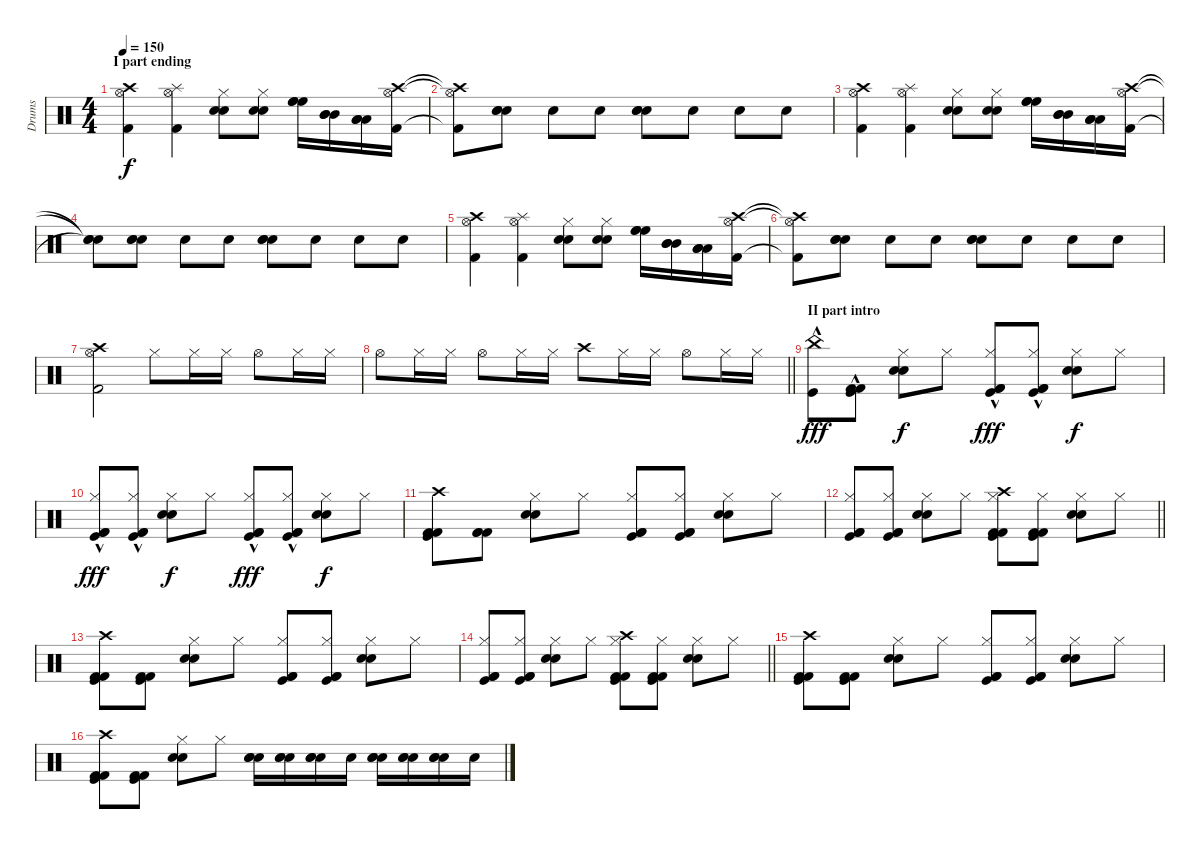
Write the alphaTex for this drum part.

\track ("Drums" "Drums") {instrument percussion}
\staff {score}
\articulation defaults
\ts (4 4)
\section ("" "I part ending")
\tempo 150
\clef neutral
\ks c
("Crash high (hit)" "Hi-Hat (open)" "Kick (hit) 2").4{dy f} ("Splash (hit)" "Hi-Hat (open)" "Kick (hit) 2").4 ("Hi-Hat (closed)" "Electric Snare (hit)" "Snare (hit) 2").8 ("Hi-Hat (closed)" "Electric Snare (hit)" "Snare (hit) 2").8 ("High Floor Tom (hit)" "High Floor Tom (hit)" "High Floor Tom (hit)").16 ("Mid Tom (hit)" "Mid Tom (hit)" "Mid Tom (hit)").16 ("Low Tom (hit)" "Low Tom (hit)" "Low Tom (hit)").16 ("Crash high (hit)" "Hi-Hat (open)" "Kick (hit) 2").16 |
("Crash high (hit)"{t} "Hi-Hat (open)"{t} "Kick (hit) 2"{t}).8 ("Snare (hit) 2" "Snare (hit) 2" "Electric Snare (hit)").8 "Snare (hit) 2".8 "Snare (hit) 2".8 ("Snare (hit) 2" "Snare (hit) 2" "Electric Snare (hit)").8 "Snare (hit) 2".8 "Electric Snare (hit)".8 "Electric Snare (hit)".8 |
("Crash high (hit)" "Hi-Hat (open)" "Kick (hit) 2").4 ("Splash (hit)" "Hi-Hat (open)" "Kick (hit) 2").4 ("Hi-Hat (closed)" "Electric Snare (hit)" "Snare (hit) 2").8 ("Hi-Hat (closed)" "Electric Snare (hit)" "Snare (hit) 2").8 ("High Floor Tom (hit)" "High Floor Tom (hit)" "High Floor Tom (hit)").16 ("Mid Tom (hit)" "Mid Tom (hit)" "Mid Tom (hit)").16 ("Low Tom (hit)" "Low Tom (hit)" "Low Tom (hit)").16 ("Crash high (hit)" "Hi-Hat (open)" "Kick (hit) 2").16 |
("Snare (hit)"{t} "Snare (hit)"{t} "Snare (hit)"{t}).8 ("Snare (hit) 2" "Snare (hit) 2" "Electric Snare (hit)").8 "Snare (hit) 2".8 "Snare (hit) 2".8 ("Snare (hit) 2" "Snare (hit) 2" "Electric Snare (hit)").8 "Snare (hit) 2".8 "Electric Snare (hit)".8 "Electric Snare (hit)".8 |
("Crash high (hit)" "Hi-Hat (open)" "Kick (hit) 2").4 ("Splash (hit)" "Hi-Hat (open)" "Kick (hit) 2").4 ("Hi-Hat (closed)" "Electric Snare (hit)" "Snare (hit) 2").8 ("Hi-Hat (closed)" "Electric Snare (hit)" "Snare (hit) 2").8 ("High Floor Tom (hit)" "High Floor Tom (hit)" "High Floor Tom (hit)").16 ("Mid Tom (hit)" "Mid Tom (hit)" "Mid Tom (hit)").16 ("Low Tom (hit)" "Low Tom (hit)" "Low Tom (hit)").16 ("Crash high (hit)" "Hi-Hat (open)" "Kick (hit) 2").16 |
("Crash high (hit)"{t} "Hi-Hat (open)"{t} "Kick (hit) 2"{t}).8 ("Snare (hit) 2" "Snare (hit) 2" "Electric Snare (hit)").8 "Snare (hit) 2".8 "Snare (hit) 2".8 ("Snare (hit) 2" "Snare (hit) 2" "Electric Snare (hit)").8 "Snare (hit) 2".8 "Electric Snare (hit)".8 "Electric Snare (hit)".8 |
("Crash high (hit)" "Hi-Hat (open)" "Kick (hit) 2").2 "Hi-Hat (closed)".8 "Hi-Hat (closed)".16 "Hi-Hat (closed)".16 "Hi-Hat (open)".8 "Hi-Hat (closed)".16 "Hi-Hat (closed)".16 |
\barLineRight lightlight "Hi-Hat (open)".8 "Hi-Hat (closed)".16 "Hi-Hat (closed)".16 "Hi-Hat (open)".8 "Hi-Hat (closed)".16 "Hi-Hat (closed)".16 "Crash high (hit)".8 "Hi-Hat (closed)".16 "Hi-Hat (closed)".16 "Hi-Hat (open)".8 "Hi-Hat (closed)".16 "Hi-Hat (closed)".16
|
\section ("" "II part intro")
("China (hit)"{hac} "Kick (hit)"{hac}).8{dy fff} ("Kick (hit) 2" "Kick (hit) 2"{hac} "Kick (hit)"{hac}).8 ("Hi-Hat (closed)" "Electric Snare (hit)" "Snare (hit) 2").8{dy f} "Hi-Hat (closed)".8 ("Kick (hit) 2" "Hi-Hat (closed)" "Kick (hit)"{hac} "Kick (hit) 2"{hac}).8{dy fff} ("Kick (hit) 2" "Hi-Hat (closed)" "Kick (hit)"{hac} "Kick (hit) 2"{hac}).8 ("Hi-Hat (closed)" "Electric Snare (hit)" "Snare (hit) 2").8{dy f} "Hi-Hat (closed)".8 |
("Kick (hit) 2" "Hi-Hat (closed)" "Kick (hit)"{hac} "Kick (hit) 2"{hac}).8{dy fff} ("Kick (hit) 2" "Hi-Hat (closed)" "Kick (hit)"{hac} "Kick (hit) 2"{hac}).8 ("Hi-Hat (closed)" "Electric Snare (hit)" "Snare (hit) 2").8{dy f} "Hi-Hat (closed)".8 ("Kick (hit) 2" "Hi-Hat (closed)" "Kick (hit)"{hac} "Kick (hit) 2"{hac}).8{dy fff} ("Kick (hit) 2" "Hi-Hat (closed)" "Kick (hit)"{hac} "Kick (hit) 2"{hac}).8 ("Hi-Hat (closed)" "Electric Snare (hit)" "Snare (hit) 2").8{dy f} "Hi-Hat (closed)".8 |
("Kick (hit) 2" "Crash high (hit)" "Kick (hit) 2" "Kick (hit)").8 ("Kick (hit) 2" "Kick (hit) 2" "Kick (hit) 2").8 ("Hi-Hat (closed)" "Electric Snare (hit)" "Snare (hit) 2").8 "Hi-Hat (closed)".8 ("Kick (hit) 2" "Hi-Hat (closed)" "Kick (hit) 2" "Kick (hit)").8 ("Kick (hit) 2" "Hi-Hat (closed)" "Kick (hit) 2" "Kick (hit)").8 ("Hi-Hat (closed)" "Electric Snare (hit)" "Snare (hit) 2").8 "Hi-Hat (closed)".8 |
\barLineRight lightlight
("Kick (hit) 2" "Hi-Hat (closed)" "Kick (hit) 2" "Kick (hit)").8 ("Kick (hit) 2" "Hi-Hat (closed)" "Kick (hit) 2" "Kick (hit)").8 ("Hi-Hat (closed)" "Electric Snare (hit)" "Snare (hit) 2").8 "Hi-Hat (closed)".8 ("Crash high (hit)" "Kick (hit) 2" "Hi-Hat (closed)" "Kick (hit) 2" "Kick (hit)").8 ("Kick (hit) 2" "Hi-Hat (closed)" "Kick (hit) 2" "Kick (hit)").8 ("Hi-Hat (closed)" "Electric Snare (hit)" "Snare (hit) 2").8 "Hi-Hat (closed)".8 |
("Kick (hit) 2" "Crash high (hit)" "Kick (hit) 2" "Kick (hit)").8 ("Kick (hit) 2" "Kick (hit) 2" "Kick (hit)").8 ("Hi-Hat (closed)" "Electric Snare (hit)" "Snare (hit) 2").8 "Hi-Hat (closed)".8 ("Kick (hit) 2" "Hi-Hat (closed)" "Kick (hit) 2" "Kick (hit)").8 ("Kick (hit) 2" "Hi-Hat (closed)" "Kick (hit) 2" "Kick (hit)").8 ("Hi-Hat (closed)" "Electric Snare (hit)" "Snare (hit) 2").8 "Hi-Hat (closed)".8 |
\barLineRight lightlight
("Kick (hit) 2" "Hi-Hat (closed)" "Kick (hit) 2" "Kick (hit)").8 ("Kick (hit) 2" "Hi-Hat (closed)" "Kick (hit) 2" "Kick (hit)").8 ("Hi-Hat (closed)" "Electric Snare (hit)" "Snare (hit) 2").8 "Hi-Hat (closed)".8 ("Crash high (hit)" "Kick (hit) 2" "Hi-Hat (closed)" "Kick (hit) 2" "Kick (hit)").8 ("Kick (hit) 2" "Hi-Hat (closed)" "Kick (hit) 2" "Kick (hit)").8 ("Hi-Hat (closed)" "Electric Snare (hit)" "Snare (hit) 2").8 "Hi-Hat (closed)".8 |
("Kick (hit) 2" "Crash high (hit)" "Kick (hit) 2" "Kick (hit)").8 ("Kick (hit) 2" "Kick (hit) 2" "Kick (hit)").8 ("Hi-Hat (closed)" "Electric Snare (hit)" "Snare (hit) 2").8 "Hi-Hat (closed)".8 ("Kick (hit) 2" "Hi-Hat (closed)" "Kick (hit) 2" "Kick (hit)").8 ("Kick (hit) 2" "Hi-Hat (closed)" "Kick (hit) 2" "Kick (hit)").8 ("Hi-Hat (closed)" "Electric Snare (hit)" "Snare (hit) 2").8 "Hi-Hat (closed)".8 |
("Kick (hit) 2" "Crash high (hit)" "Kick (hit) 2" "Kick (hit)").8 ("Kick (hit) 2" "Kick (hit) 2" "Kick (hit)").8 ("Hi-Hat (closed)" "Electric Snare (hit)" "Snare (hit) 2").8 "Hi-Hat (closed)".8 ("Snare (hit) 2" "Snare (hit) 2" "Electric Snare (hit)").16 ("Snare (hit) 2" "Snare (hit) 2" "Electric Snare (hit)").16 ("Snare (hit) 2" "Snare (hit) 2" "Electric Snare (hit)").16 "Electric Snare (hit)".16 ("Snare (hit) 2" "Snare (hit) 2" "Electric Snare (hit)").16 ("Snare (hit) 2" "Snare (hit) 2" "Electric Snare (hit)").16 ("Snare (hit) 2" "Snare (hit) 2" "Electric Snare (hit)").16 "Electric Snare (hit)".16
